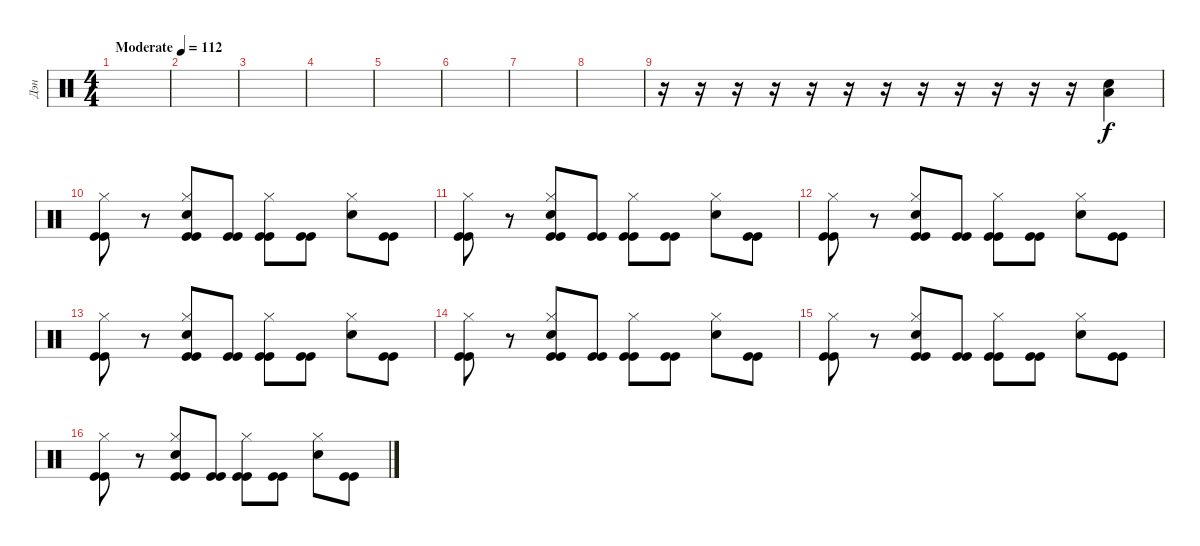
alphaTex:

\track ("Дэн" "Дэн") {instrument percussion}
\staff {score}
\articulation defaults
\ts (4 4)
\tempo (112 "Moderate")
\clef neutral
\ks c
|
|
|
|
|
|
|
|
r.16 r.16 r.16 r.16 r.16 r.16 r.16 r.16 r.16 r.16 r.16 r.16 ("Electric Snare (hit)" "Low Tom (hit)").4 |
("Hi-Hat (closed)" "Kick (hit)" "Kick (hit)").8 r.8 ("Hi-Hat (closed)" "Kick (hit)" "Kick (hit)" "Electric Snare (hit)").8 ("Kick (hit)" "Kick (hit)").8 ("Hi-Hat (closed)" "Kick (hit)" "Kick (hit)").8 ("Kick (hit)" "Kick (hit)").8 ("Hi-Hat (closed)" "Electric Snare (hit)").8 ("Kick (hit)" "Kick (hit)").8 |
("Hi-Hat (closed)" "Kick (hit)" "Kick (hit)").8 r.8 ("Hi-Hat (closed)" "Kick (hit)" "Kick (hit)" "Electric Snare (hit)").8 ("Kick (hit)" "Kick (hit)").8 ("Hi-Hat (closed)" "Kick (hit)" "Kick (hit)").8 ("Kick (hit)" "Kick (hit)").8 ("Hi-Hat (closed)" "Electric Snare (hit)").8 ("Kick (hit)" "Kick (hit)").8 |
("Hi-Hat (closed)" "Kick (hit)" "Kick (hit)").8 r.8 ("Hi-Hat (closed)" "Kick (hit)" "Kick (hit)" "Electric Snare (hit)").8 ("Kick (hit)" "Kick (hit)").8 ("Hi-Hat (closed)" "Kick (hit)" "Kick (hit)").8 ("Kick (hit)" "Kick (hit)").8 ("Hi-Hat (closed)" "Electric Snare (hit)").8 ("Kick (hit)" "Kick (hit)").8 |
("Hi-Hat (closed)" "Kick (hit)" "Kick (hit)").8 r.8 ("Hi-Hat (closed)" "Kick (hit)" "Kick (hit)" "Electric Snare (hit)").8 ("Kick (hit)" "Kick (hit)").8 ("Hi-Hat (closed)" "Kick (hit)" "Kick (hit)").8 ("Kick (hit)" "Kick (hit)").8 ("Hi-Hat (closed)" "Electric Snare (hit)").8 ("Kick (hit)" "Kick (hit)").8 |
("Hi-Hat (closed)" "Kick (hit)" "Kick (hit)").8 r.8 ("Hi-Hat (closed)" "Kick (hit)" "Kick (hit)" "Electric Snare (hit)").8 ("Kick (hit)" "Kick (hit)").8 ("Hi-Hat (closed)" "Kick (hit)" "Kick (hit)").8 ("Kick (hit)" "Kick (hit)").8 ("Hi-Hat (closed)" "Electric Snare (hit)").8 ("Kick (hit)" "Kick (hit)").8 |
("Hi-Hat (closed)" "Kick (hit)" "Kick (hit)").8 r.8 ("Hi-Hat (closed)" "Kick (hit)" "Kick (hit)" "Electric Snare (hit)").8 ("Kick (hit)" "Kick (hit)").8 ("Hi-Hat (closed)" "Kick (hit)" "Kick (hit)").8 ("Kick (hit)" "Kick (hit)").8 ("Hi-Hat (closed)" "Electric Snare (hit)").8 ("Kick (hit)" "Kick (hit)").8 |
("Hi-Hat (closed)" "Kick (hit)" "Kick (hit)").8 r.8 ("Hi-Hat (closed)" "Kick (hit)" "Kick (hit)" "Electric Snare (hit)").8 ("Kick (hit)" "Kick (hit)").8 ("Hi-Hat (closed)" "Kick (hit)" "Kick (hit)").8 ("Kick (hit)" "Kick (hit)").8 ("Hi-Hat (closed)" "Electric Snare (hit)").8 ("Kick (hit)" "Kick (hit)").8
